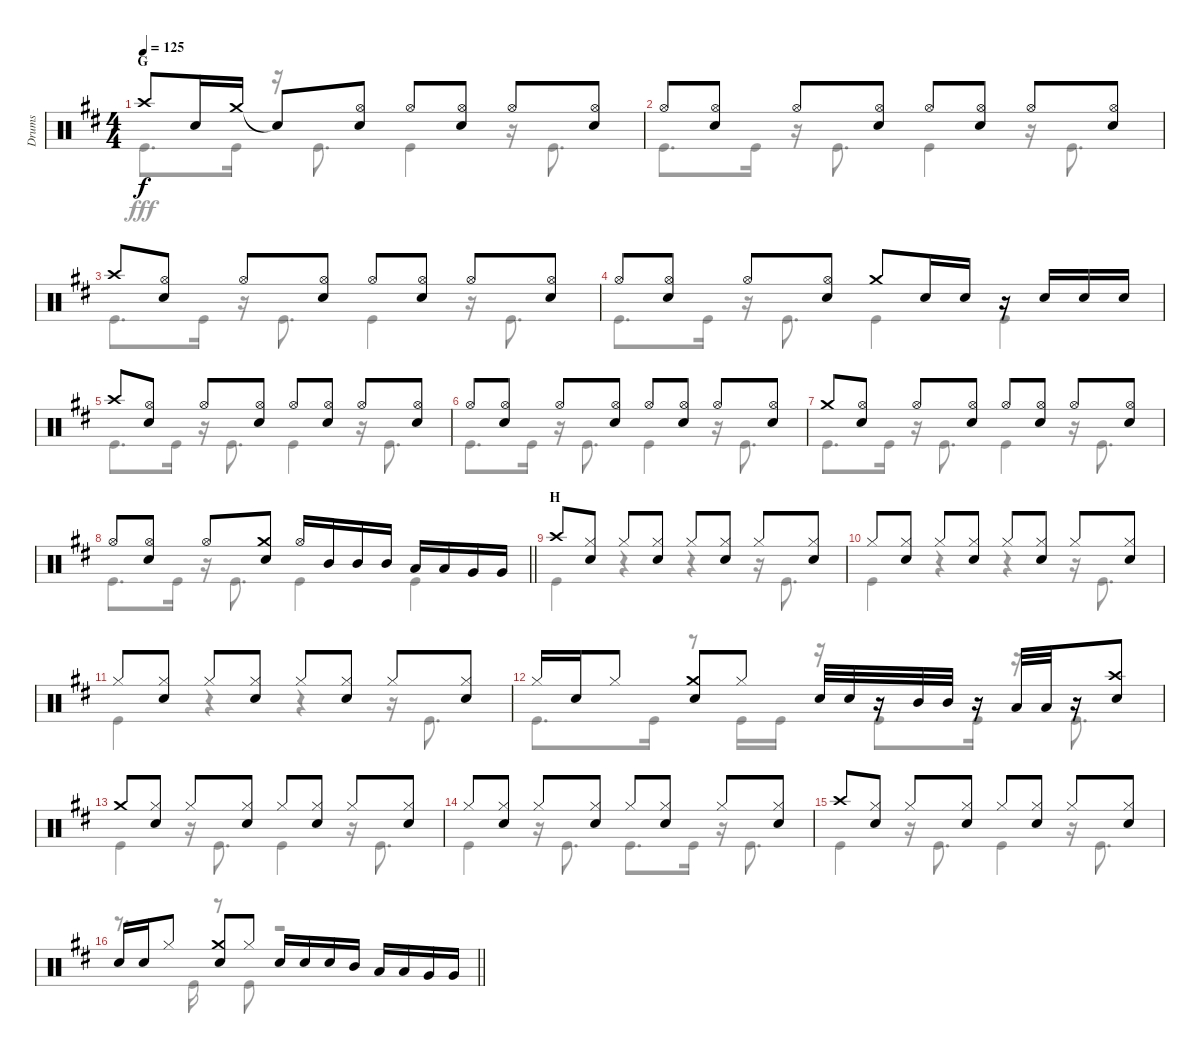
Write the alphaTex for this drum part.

\track ("Drums" "Drums") {instrument percussion}
\staff {score}
\articulation defaults
\voice
\ts (4 4)
\section ("" "G")
\tempo 125
\clef neutral
\ks d "Crash high (hit)".8{dy f} "Snare (hit) 2".16 "Crash medium (hit)".16 "Snare (hit)"{t}.8
("Hi-Hat (open)" "Snare (hit) 2").8 "Hi-Hat (open)".8 ("Hi-Hat (open)" "Snare (hit) 2").8 "Hi-Hat (open)".8 ("Hi-Hat (open)" "Snare (hit) 2").8 |
"Hi-Hat (open)".8 ("Hi-Hat (open)" "Snare (hit) 2").8 "Hi-Hat (open)".8 ("Hi-Hat (open)" "Snare (hit) 2").8 "Hi-Hat (open)".8 ("Hi-Hat (open)" "Snare (hit) 2").8 "Hi-Hat (open)".8 ("Hi-Hat (open)" "Snare (hit) 2").8 |
"Crash high (hit)".8 ("Hi-Hat (open)" "Snare (hit) 2").8 "Hi-Hat (open)".8 ("Hi-Hat (open)" "Snare (hit) 2").8 "Hi-Hat (open)".8 ("Hi-Hat (open)" "Snare (hit) 2").8 "Hi-Hat (open)".8 ("Hi-Hat (open)" "Snare (hit) 2").8 |
"Hi-Hat (open)".8 ("Hi-Hat (open)" "Snare (hit) 2").8 "Hi-Hat (open)".8 ("Hi-Hat (open)" "Snare (hit) 2").8 "Crash medium (hit)".8 "Snare (hit) 2".16 "Snare (hit) 2".16 r.16 "Snare (hit) 2".16 "Snare (hit) 2".16 "Snare (hit) 2".16 |
"Crash high (hit)".8 ("Hi-Hat (open)" "Snare (hit) 2").8 "Hi-Hat (open)".8 ("Hi-Hat (open)" "Snare (hit) 2").8 "Hi-Hat (open)".8 ("Hi-Hat (open)" "Snare (hit) 2").8 "Hi-Hat (open)".8 ("Hi-Hat (open)" "Snare (hit) 2").8 |
"Hi-Hat (open)".8 ("Hi-Hat (open)" "Snare (hit) 2").8 "Hi-Hat (open)".8 ("Hi-Hat (open)" "Snare (hit) 2").8 "Hi-Hat (open)".8 ("Hi-Hat (open)" "Snare (hit) 2").8 "Hi-Hat (open)".8 ("Hi-Hat (open)" "Snare (hit) 2").8 |
"Crash medium (hit)".8 ("Hi-Hat (open)" "Snare (hit) 2").8 "Hi-Hat (open)".8 ("Hi-Hat (open)" "Snare (hit) 2").8 "Hi-Hat (open)".8 ("Hi-Hat (open)" "Snare (hit) 2").8 "Hi-Hat (open)".8 ("Hi-Hat (open)" "Snare (hit) 2").8 |
\barLineRight lightlight "Hi-Hat (open)".8
("Hi-Hat (open)" "Snare (hit) 2").8 "Hi-Hat (open)".8 ("Crash medium (hit)" "Snare (hit) 2").8 "Hi-Hat (open)".16 "Mid Tom (hit)".16 "Mid Tom (hit)".16 "Mid Tom (hit)".16 "Low Tom (hit)".16 "Low Tom (hit)".16 "Very Low Tom (hit)".16 "Very Low Tom (hit)".16 |
\section ("" "H")
"Crash high (hit)".8 ("Hi-Hat (closed)" "Snare (hit) 2").8 "Hi-Hat (closed)".8 ("Hi-Hat (closed)" "Snare (hit) 2").8 "Hi-Hat (closed)".8 ("Hi-Hat (closed)" "Snare (hit) 2").8 "Hi-Hat (closed)".8 ("Hi-Hat (closed)" "Snare (hit) 2").8 |
"Hi-Hat (closed)".8 ("Hi-Hat (closed)" "Snare (hit) 2").8 "Hi-Hat (closed)".8 ("Hi-Hat (closed)" "Snare (hit) 2").8 "Hi-Hat (closed)".8 ("Hi-Hat (closed)" "Snare (hit) 2").8 "Hi-Hat (closed)".8 ("Hi-Hat (closed)" "Snare (hit) 2").8 |
"Hi-Hat (closed)".8 ("Hi-Hat (closed)" "Snare (hit) 2").8 "Hi-Hat (closed)".8 ("Hi-Hat (closed)" "Snare (hit) 2").8 "Hi-Hat (closed)".8 ("Hi-Hat (closed)" "Snare (hit) 2").8 "Hi-Hat (closed)".8 ("Hi-Hat (closed)" "Snare (hit) 2").8 |
"Hi-Hat (closed)".16 "Snare (hit) 2".16 "Hi-Hat (closed)".8 ("Crash medium (hit)" "Snare (hit) 2").8 "Hi-Hat (closed)".8 "Snare (hit) 2".32 "Snare (hit) 2".32 r.16 "Mid Tom (hit)".32 "Mid Tom (hit)".32 r.16 "Low Tom (hit)".32 "Low Tom (hit)".32 r.16 ("Crash high (hit)" "Snare (hit) 2").8 |
"Crash medium (hit)".8 ("Hi-Hat (closed)" "Snare (hit) 2").8 "Hi-Hat (closed)".8 ("Hi-Hat (closed)" "Snare (hit) 2").8 "Hi-Hat (closed)".8 ("Hi-Hat (closed)" "Snare (hit) 2").8 "Hi-Hat (closed)".8 ("Hi-Hat (closed)" "Snare (hit) 2").8 |
"Hi-Hat (closed)".8 ("Hi-Hat (closed)" "Snare (hit) 2").8 "Hi-Hat (closed)".8 ("Hi-Hat (closed)" "Snare (hit) 2").8 "Hi-Hat (closed)".8 ("Hi-Hat (closed)" "Snare (hit) 2").8 "Hi-Hat (closed)".8 ("Hi-Hat (closed)" "Snare (hit) 2").8 |
"Crash high (hit)".8 ("Hi-Hat (closed)" "Snare (hit) 2").8 "Hi-Hat (closed)".8 ("Hi-Hat (closed)" "Snare (hit) 2").8 "Hi-Hat (closed)".8 ("Hi-Hat (closed)" "Snare (hit) 2").8 "Hi-Hat (closed)".8 ("Hi-Hat (closed)" "Snare (hit) 2").8 |
\barLineRight lightlight "Snare (hit) 2".16 "Snare (hit) 2".16 "Hi-Hat (closed)".8
("Crash medium (hit)" "Snare (hit) 2").8 "Hi-Hat (closed)".8 "Snare (hit) 2".16 "Snare (hit) 2".16 "Snare (hit) 2".16 "Mid Tom (hit)".16 "Low Tom (hit)".16 "Low Tom (hit)".16 "Very Low Tom (hit)".16 "Very Low Tom (hit)".16
\voice
\clef neutral
\ottava regular
\simile none
\ks d "Kick (hit)".8{d dy fff} "Kick (hit)".16
r.16 "Kick (hit)".8{d} "Kick (hit)".4 r.16 "Kick (hit)".8{d} |
"Kick (hit)".8{d} "Kick (hit)".16 r.16 "Kick (hit)".8{d} "Kick (hit)".4 r.16 "Kick (hit)".8{d} |
"Kick (hit)".8{d} "Kick (hit)".16 r.16 "Kick (hit)".8{d} "Kick (hit)".4 r.16 "Kick (hit)".8{d} |
"Kick (hit)".8{d} "Kick (hit)".16 r.16 "Kick (hit)".8{d} "Kick (hit)".4 "Kick (hit)".4 |
"Kick (hit)".8{d} "Kick (hit)".16 r.16 "Kick (hit)".8{d} "Kick (hit)".4 r.16 "Kick (hit)".8{d} |
"Kick (hit)".8{d} "Kick (hit)".16 r.16 "Kick (hit)".8{d} "Kick (hit)".4 r.16 "Kick (hit)".8{d} |
"Kick (hit)".8{d} "Kick (hit)".16 r.16 "Kick (hit)".8{d} "Kick (hit)".4 r.16 "Kick (hit)".8{d} |
\barLineRight lightlight "Kick (hit)".8{d} "Kick (hit)".16
r.16 "Kick (hit)".8{d} "Kick (hit)".4 "Kick (hit)".4 |
"Kick (hit)".4 r.4 r.4 r.16 "Kick (hit)".8{d} |
"Kick (hit)".4 r.4 r.4 r.16 "Kick (hit)".8{d} |
"Kick (hit)".4 r.4 r.4 r.16 "Kick (hit)".8{d} |
"Kick (hit)".8{d} "Kick (hit)".16 r.8 "Kick (hit)".16 "Kick (hit)".16 r.16 "Kick (hit)".8 "Kick (hit)".16 r.16 "Kick (hit)".8{d} |
"Kick (hit)".4 r.16 "Kick (hit)".8{d} "Kick (hit)".4 r.16 "Kick (hit)".8{d} |
"Kick (hit)".4 r.16 "Kick (hit)".8{d} "Kick (hit)".8{d} "Kick (hit)".16 r.16 "Kick (hit)".8{d} |
"Kick (hit)".4 r.16 "Kick (hit)".8{d} "Kick (hit)".4 r.16 "Kick (hit)".8{d} |
\barLineRight lightlight
r.8{d} "Kick (hit)".16 r.8 "Kick (hit)".8 r.2
